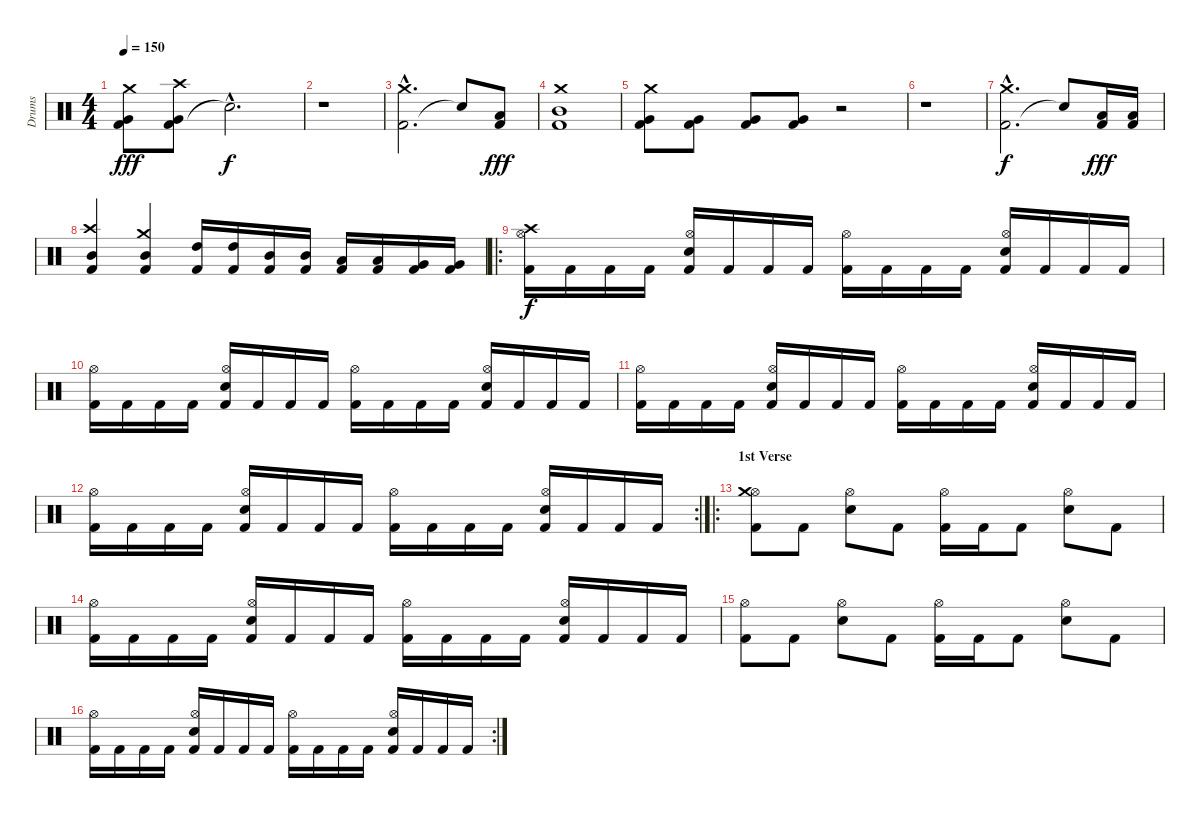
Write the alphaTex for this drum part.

\track ("Drums" "Drums") {instrument percussion}
\staff {score}
\articulation defaults
\ts (4 4)
\tempo 150
\clef neutral
\ks c
("Kick (hit) 2" "Very Low Tom (hit)" "Crash medium (hit)").8{dy fff} ("Kick (hit) 2" "Very Low Tom (hit)" "Crash high (hit)").8 "Snare (hit)"{hac t}.2{d dy f} |
r.1 |
("Kick (hit) 2"{hac} "Crash medium (hit)"{hac}).2{d} "Snare (hit)"{t}.8 ("Kick (hit) 2" "Low Tom (hit)").8{dy fff} |
("Kick (hit) 2" "Mid Tom (hit)" "Crash medium (hit)").1 |
("Kick (hit) 2" "Very Low Tom (hit)" "Crash medium (hit)").8 ("Kick (hit) 2" "Very Low Tom (hit)").8 ("Kick (hit) 2" "Very Low Tom (hit)").8 ("Kick (hit) 2" "Very Low Tom (hit)").8 r.2 |
r.1 |
("Kick (hit) 2"{hac} "Crash medium (hit)"{hac}).2{d dy f} "Snare (hit)"{t}.8 ("Kick (hit) 2" "Low Tom (hit)").16{dy fff} ("Kick (hit) 2" "Low Tom (hit)").16 |
("Kick (hit) 2" "Mid Tom (hit)" "Crash high (hit)").4 ("Kick (hit) 2" "Mid Tom (hit)" "Crash medium (hit)").4 ("Kick (hit) 2" "High Tom (hit)").16 ("Kick (hit) 2" "High Tom (hit)").16 ("Kick (hit) 2" "Mid Tom (hit)").16 ("Kick (hit) 2" "Mid Tom (hit)").16 ("Kick (hit) 2" "Low Tom (hit)").16 ("Kick (hit) 2" "Low Tom (hit)").16 ("Kick (hit) 2" "Very Low Tom (hit)").16 ("Kick (hit) 2" "Very Low Tom (hit)").16 |
\ro
("Kick (hit) 2" "Hi-Hat (open)" "Crash high (hit)").16{dy f} "Kick (hit) 2".16 "Kick (hit) 2".16 "Kick (hit) 2".16 ("Kick (hit) 2" "Electric Snare (hit)" "Hi-Hat (open)").16 "Kick (hit) 2".16 "Kick (hit) 2".16 "Kick (hit) 2".16 ("Kick (hit) 2" "Hi-Hat (open)").16 "Kick (hit) 2".16 "Kick (hit) 2".16 "Kick (hit) 2".16 ("Kick (hit) 2" "Electric Snare (hit)" "Hi-Hat (open)").16 "Kick (hit) 2".16 "Kick (hit) 2".16 "Kick (hit) 2".16 |
("Kick (hit) 2" "Hi-Hat (open)").16 "Kick (hit) 2".16 "Kick (hit) 2".16 "Kick (hit) 2".16 ("Kick (hit) 2" "Electric Snare (hit)" "Hi-Hat (open)").16 "Kick (hit) 2".16 "Kick (hit) 2".16 "Kick (hit) 2".16 ("Kick (hit) 2" "Hi-Hat (open)").16 "Kick (hit) 2".16 "Kick (hit) 2".16 "Kick (hit) 2".16 ("Kick (hit) 2" "Electric Snare (hit)" "Hi-Hat (open)").16 "Kick (hit) 2".16 "Kick (hit) 2".16 "Kick (hit) 2".16 |
("Kick (hit) 2" "Hi-Hat (open)").16 "Kick (hit) 2".16 "Kick (hit) 2".16 "Kick (hit) 2".16 ("Kick (hit) 2" "Electric Snare (hit)" "Hi-Hat (open)").16 "Kick (hit) 2".16 "Kick (hit) 2".16 "Kick (hit) 2".16 ("Kick (hit) 2" "Hi-Hat (open)").16 "Kick (hit) 2".16 "Kick (hit) 2".16 "Kick (hit) 2".16 ("Kick (hit) 2" "Electric Snare (hit)" "Hi-Hat (open)").16 "Kick (hit) 2".16 "Kick (hit) 2".16 "Kick (hit) 2".16 |
\rc 2
("Kick (hit) 2" "Hi-Hat (open)").16 "Kick (hit) 2".16 "Kick (hit) 2".16 "Kick (hit) 2".16 ("Kick (hit) 2" "Electric Snare (hit)" "Hi-Hat (open)").16 "Kick (hit) 2".16 "Kick (hit) 2".16 "Kick (hit) 2".16 ("Kick (hit) 2" "Hi-Hat (open)").16 "Kick (hit) 2".16 "Kick (hit) 2".16 "Kick (hit) 2".16 ("Kick (hit) 2" "Electric Snare (hit)" "Hi-Hat (open)").16 "Kick (hit) 2".16 "Kick (hit) 2".16 "Kick (hit) 2".16 |
\ro
\section ("" "1st Verse")
("Kick (hit) 2" "Hi-Hat (open)" "Crash medium (hit)").8 "Kick (hit) 2".8 ("Electric Snare (hit)" "Hi-Hat (open)").8 "Kick (hit) 2".8 ("Kick (hit) 2" "Hi-Hat (open)").16 "Kick (hit) 2".16 "Kick (hit) 2".8 ("Electric Snare (hit)" "Hi-Hat (open)").8 "Kick (hit) 2".8 |
("Kick (hit) 2" "Hi-Hat (open)").16 "Kick (hit) 2".16 "Kick (hit) 2".16 "Kick (hit) 2".16 ("Kick (hit) 2" "Electric Snare (hit)" "Hi-Hat (open)").16 "Kick (hit) 2".16 "Kick (hit) 2".16 "Kick (hit) 2".16 ("Kick (hit) 2" "Hi-Hat (open)").16 "Kick (hit) 2".16 "Kick (hit) 2".16 "Kick (hit) 2".16 ("Kick (hit) 2" "Electric Snare (hit)" "Hi-Hat (open)").16 "Kick (hit) 2".16 "Kick (hit) 2".16 "Kick (hit) 2".16 |
("Kick (hit) 2" "Hi-Hat (open)").8 "Kick (hit) 2".8 ("Electric Snare (hit)" "Hi-Hat (open)").8 "Kick (hit) 2".8 ("Kick (hit) 2" "Hi-Hat (open)").16 "Kick (hit) 2".16 "Kick (hit) 2".8 ("Electric Snare (hit)" "Hi-Hat (open)").8 "Kick (hit) 2".8 |
\rc 2
("Kick (hit) 2" "Hi-Hat (open)").16 "Kick (hit) 2".16 "Kick (hit) 2".16 "Kick (hit) 2".16 ("Kick (hit) 2" "Electric Snare (hit)" "Hi-Hat (open)").16 "Kick (hit) 2".16 "Kick (hit) 2".16 "Kick (hit) 2".16 ("Kick (hit) 2" "Hi-Hat (open)").16 "Kick (hit) 2".16 "Kick (hit) 2".16 "Kick (hit) 2".16 ("Kick (hit) 2" "Electric Snare (hit)" "Hi-Hat (open)").16 "Kick (hit) 2".16 "Kick (hit) 2".16 "Kick (hit) 2".16
